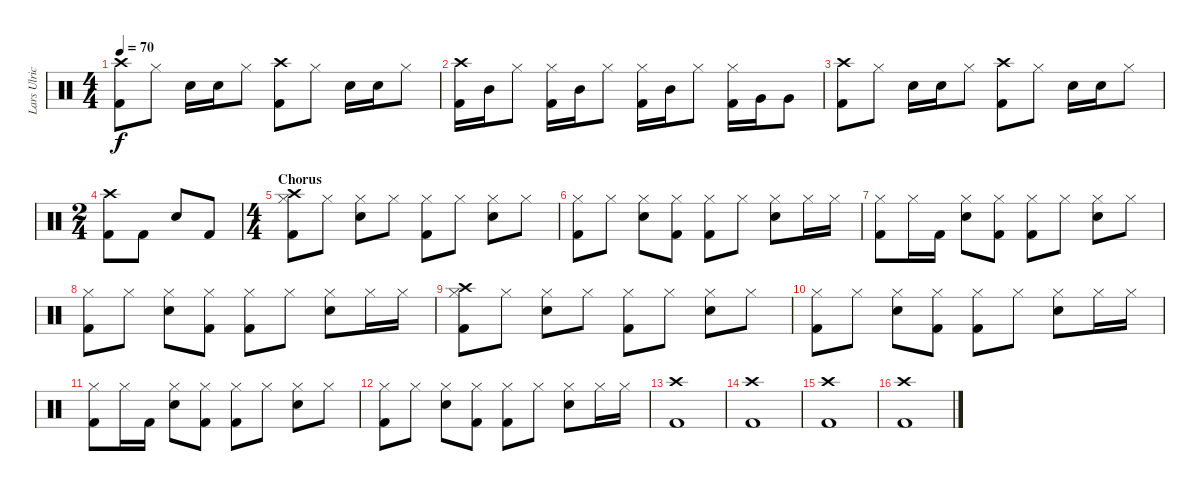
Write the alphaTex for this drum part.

\track ("Lars Ulrich (Drums)" "Lars Ulric") {instrument percussion}
\staff {score}
\articulation defaults
\ts (4 4)
\tempo 70
\clef neutral
\ks c
("Crash high (hit)" "Kick (hit) 2").8{dy f} "Hi-Hat (closed)".8 "Electric Snare (hit)".16 "Electric Snare (hit)".16 "Hi-Hat (closed)".8 ("Crash high (hit)" "Kick (hit) 2").8 "Hi-Hat (closed)".8 "Electric Snare (hit)".16 "Electric Snare (hit)".16 "Hi-Hat (closed)".8 |
("Crash high (hit)" "Kick (hit) 2").16 "Mid Tom (hit)".16 "Hi-Hat (closed)".8 ("Hi-Hat (closed)" "Kick (hit) 2").16 "Mid Tom (hit)".16 "Hi-Hat (closed)".8 ("Hi-Hat (closed)" "Kick (hit) 2").16 "Mid Tom (hit)".16 "Hi-Hat (closed)".8 ("Hi-Hat (closed)" "Kick (hit) 2").16 "Very Low Tom (hit)".16 "Very Low Tom (hit)".8 |
("Crash high (hit)" "Kick (hit) 2").8 "Hi-Hat (closed)".8 "Electric Snare (hit)".16 "Electric Snare (hit)".16 "Hi-Hat (closed)".8 ("Crash high (hit)" "Kick (hit) 2").8 "Hi-Hat (closed)".8 "Electric Snare (hit)".16 "Electric Snare (hit)".16 "Hi-Hat (closed)".8 |
\ts (2 4)
("Crash high (hit)" "Kick (hit) 2").8 "Kick (hit) 2".8 "Electric Snare (hit)".8 "Kick (hit) 2".8 |
\ts (4 4)
\section ("" "Chorus")
("Crash high (hit)" "Hi-Hat (closed)" "Kick (hit) 2").8 "Hi-Hat (closed)".8 ("Electric Snare (hit)" "Hi-Hat (closed)").8 "Hi-Hat (closed)".8 ("Hi-Hat (closed)" "Kick (hit) 2").8 "Hi-Hat (closed)".8 ("Electric Snare (hit)" "Hi-Hat (closed)").8 "Hi-Hat (closed)".8 |
("Hi-Hat (closed)" "Kick (hit) 2").8 "Hi-Hat (closed)".8 ("Electric Snare (hit)" "Hi-Hat (closed)").8 ("Hi-Hat (closed)" "Kick (hit) 2").8 ("Hi-Hat (closed)" "Kick (hit) 2").8 "Hi-Hat (closed)".8 ("Electric Snare (hit)" "Hi-Hat (closed)").8 "Hi-Hat (closed)".16 "Hi-Hat (closed)".16 |
("Hi-Hat (closed)" "Kick (hit) 2").8 "Hi-Hat (closed)".16 "Kick (hit) 2".16 ("Electric Snare (hit)" "Hi-Hat (closed)").8 ("Hi-Hat (closed)" "Kick (hit) 2").8 ("Hi-Hat (closed)" "Kick (hit) 2").8 "Hi-Hat (closed)".8 ("Electric Snare (hit)" "Hi-Hat (closed)").8 "Hi-Hat (closed)".8 |
("Hi-Hat (closed)" "Kick (hit) 2").8 "Hi-Hat (closed)".8 ("Electric Snare (hit)" "Hi-Hat (closed)").8 ("Hi-Hat (closed)" "Kick (hit) 2").8 ("Hi-Hat (closed)" "Kick (hit) 2").8 "Hi-Hat (closed)".8 ("Electric Snare (hit)" "Hi-Hat (closed)").8 "Hi-Hat (closed)".16 "Hi-Hat (closed)".16 |
("Crash high (hit)" "Hi-Hat (closed)" "Kick (hit) 2").8 "Hi-Hat (closed)".8 ("Electric Snare (hit)" "Hi-Hat (closed)").8 "Hi-Hat (closed)".8 ("Hi-Hat (closed)" "Kick (hit) 2").8 "Hi-Hat (closed)".8 ("Electric Snare (hit)" "Hi-Hat (closed)").8 "Hi-Hat (closed)".8 |
("Hi-Hat (closed)" "Kick (hit) 2").8 "Hi-Hat (closed)".8 ("Electric Snare (hit)" "Hi-Hat (closed)").8 ("Hi-Hat (closed)" "Kick (hit) 2").8 ("Hi-Hat (closed)" "Kick (hit) 2").8 "Hi-Hat (closed)".8 ("Electric Snare (hit)" "Hi-Hat (closed)").8 "Hi-Hat (closed)".16 "Hi-Hat (closed)".16 |
("Hi-Hat (closed)" "Kick (hit) 2").8 "Hi-Hat (closed)".16 "Kick (hit) 2".16 ("Electric Snare (hit)" "Hi-Hat (closed)").8 ("Hi-Hat (closed)" "Kick (hit) 2").8 ("Hi-Hat (closed)" "Kick (hit) 2").8 "Hi-Hat (closed)".8 ("Electric Snare (hit)" "Hi-Hat (closed)").8 "Hi-Hat (closed)".8 |
("Hi-Hat (closed)" "Kick (hit) 2").8 "Hi-Hat (closed)".8 ("Electric Snare (hit)" "Hi-Hat (closed)").8 ("Hi-Hat (closed)" "Kick (hit) 2").8 ("Hi-Hat (closed)" "Kick (hit) 2").8 "Hi-Hat (closed)".8 ("Electric Snare (hit)" "Hi-Hat (closed)").8 "Hi-Hat (closed)".16 "Hi-Hat (closed)".16 |
("Crash high (hit)" "Kick (hit) 2").1 |
("Crash high (hit)" "Kick (hit) 2").1 |
("Crash high (hit)" "Kick (hit) 2").1 |
("Crash high (hit)" "Kick (hit) 2").1
